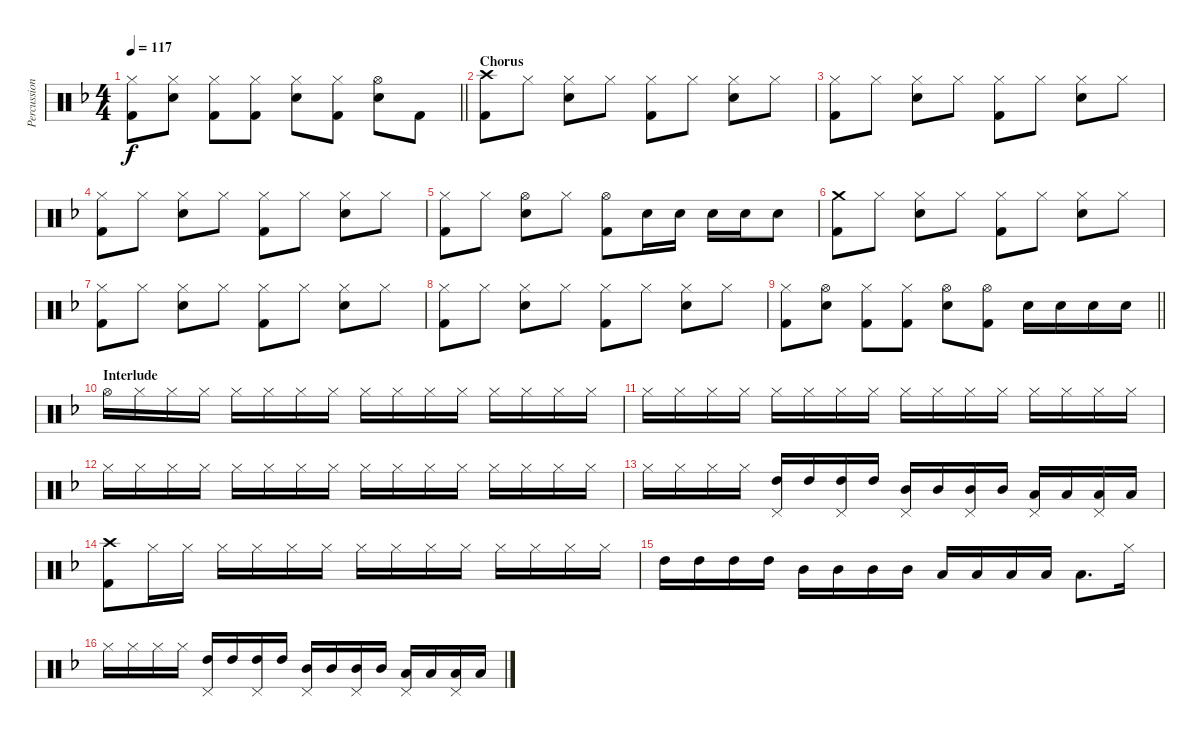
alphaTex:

\track ("Percussion" "Percussion") {instrument percussion}
\staff {score}
\articulation defaults
\ts (4 4)
\tempo 117
\clef neutral
\barLineRight lightlight
\ks f
("Hi-Hat (closed)" "Kick (hit) 2").8{dy f} ("Hi-Hat (closed)" "Electric Snare (hit)").8 ("Hi-Hat (closed)" "Kick (hit) 2").8 ("Hi-Hat (closed)" "Kick (hit) 2").8 ("Hi-Hat (closed)" "Electric Snare (hit)").8 ("Hi-Hat (closed)" "Kick (hit) 2").8 ("Hi-Hat (open)" "Electric Snare (hit)").8 "Kick (hit) 2".8 |
\section ("" "Chorus")
("Crash high (hit)" "Kick (hit) 2").8 "Hi-Hat (closed)".8 ("Hi-Hat (closed)" "Electric Snare (hit)").8 "Hi-Hat (closed)".8 ("Hi-Hat (closed)" "Kick (hit) 2").8 "Hi-Hat (closed)".8 ("Hi-Hat (closed)" "Electric Snare (hit)").8 "Hi-Hat (closed)".8 |
("Hi-Hat (closed)" "Kick (hit) 2").8 "Hi-Hat (closed)".8 ("Hi-Hat (closed)" "Electric Snare (hit)").8 "Hi-Hat (closed)".8 ("Hi-Hat (closed)" "Kick (hit) 2").8 "Hi-Hat (closed)".8 ("Hi-Hat (closed)" "Electric Snare (hit)").8 "Hi-Hat (closed)".8 |
("Hi-Hat (closed)" "Kick (hit) 2").8 "Hi-Hat (closed)".8 ("Hi-Hat (closed)" "Electric Snare (hit)").8 "Hi-Hat (closed)".8 ("Hi-Hat (closed)" "Kick (hit) 2").8 "Hi-Hat (closed)".8 ("Hi-Hat (closed)" "Electric Snare (hit)").8 "Hi-Hat (closed)".8 |
("Hi-Hat (closed)" "Kick (hit) 2").8 "Hi-Hat (closed)".8 ("Hi-Hat (open)" "Electric Snare (hit)").8 "Hi-Hat (closed)".8 ("Hi-Hat (open)" "Kick (hit) 2").8 "Electric Snare (hit)".16 "Electric Snare (hit)".16 "Electric Snare (hit)".16 "Electric Snare (hit)".16 "Electric Snare (hit)".8 |
("Crash medium (hit)" "Kick (hit) 2").8 "Hi-Hat (closed)".8 ("Hi-Hat (closed)" "Electric Snare (hit)").8 "Hi-Hat (closed)".8 ("Hi-Hat (closed)" "Kick (hit) 2").8 "Hi-Hat (closed)".8 ("Hi-Hat (closed)" "Electric Snare (hit)").8 "Hi-Hat (closed)".8 |
("Hi-Hat (closed)" "Kick (hit) 2").8 "Hi-Hat (closed)".8 ("Hi-Hat (closed)" "Electric Snare (hit)").8 "Hi-Hat (closed)".8 ("Hi-Hat (closed)" "Kick (hit) 2").8 "Hi-Hat (closed)".8 ("Hi-Hat (closed)" "Electric Snare (hit)").8 "Hi-Hat (closed)".8 |
("Hi-Hat (closed)" "Kick (hit) 2").8 "Hi-Hat (closed)".8 ("Hi-Hat (closed)" "Electric Snare (hit)").8 "Hi-Hat (closed)".8 ("Hi-Hat (closed)" "Kick (hit) 2").8 "Hi-Hat (closed)".8 ("Hi-Hat (closed)" "Electric Snare (hit)").8 "Hi-Hat (closed)".8 |
\barLineRight lightlight
("Hi-Hat (closed)" "Kick (hit) 2").8 ("Hi-Hat (open)" "Electric Snare (hit)").8 ("Hi-Hat (closed)" "Kick (hit) 2").8 ("Hi-Hat (closed)" "Kick (hit) 2").8 ("Hi-Hat (open)" "Electric Snare (hit)").8 ("Hi-Hat (open)" "Kick (hit) 2").8 "Electric Snare (hit)".16 "Electric Snare (hit)".16 "Electric Snare (hit)".16 "Electric Snare (hit)".16 |
\section ("" "Interlude")
"Hi-Hat (open)".16 "Hi-Hat (closed)".16 "Hi-Hat (closed)".16 "Hi-Hat (closed)".16 "Hi-Hat (closed)".16 "Hi-Hat (closed)".16 "Hi-Hat (closed)".16 "Hi-Hat (closed)".16 "Hi-Hat (closed)".16 "Hi-Hat (closed)".16 "Hi-Hat (closed)".16 "Hi-Hat (closed)".16 "Hi-Hat (closed)".16 "Hi-Hat (closed)".16 "Hi-Hat (closed)".16 "Hi-Hat (closed)".16 |
"Hi-Hat (closed)".16 "Hi-Hat (closed)".16 "Hi-Hat (closed)".16 "Hi-Hat (closed)".16 "Hi-Hat (closed)".16 "Hi-Hat (closed)".16 "Hi-Hat (closed)".16 "Hi-Hat (closed)".16 "Hi-Hat (closed)".16 "Hi-Hat (closed)".16 "Hi-Hat (closed)".16 "Hi-Hat (closed)".16 "Hi-Hat (closed)".16 "Hi-Hat (closed)".16 "Hi-Hat (closed)".16 "Hi-Hat (closed)".16 |
"Hi-Hat (closed)".16 "Hi-Hat (closed)".16 "Hi-Hat (closed)".16 "Hi-Hat (closed)".16 "Hi-Hat (closed)".16 "Hi-Hat (closed)".16 "Hi-Hat (closed)".16 "Hi-Hat (closed)".16 "Hi-Hat (closed)".16 "Hi-Hat (closed)".16 "Hi-Hat (closed)".16 "Hi-Hat (closed)".16 "Hi-Hat (closed)".16 "Hi-Hat (closed)".16 "Hi-Hat (closed)".16 "Hi-Hat (closed)".16 |
"Hi-Hat (closed)".16 "Hi-Hat (closed)".16 "Hi-Hat (closed)".16 "Hi-Hat (closed)".16 ("High Tom (hit)" "Pedal Hi-Hat (hit)").16 "High Tom (hit)".16 ("High Tom (hit)" "Pedal Hi-Hat (hit)").16 "High Tom (hit)".16 ("Mid Tom (hit)" "Pedal Hi-Hat (hit)").16 "Mid Tom (hit)".16 ("Mid Tom (hit)" "Pedal Hi-Hat (hit)").16 "Mid Tom (hit)".16 ("Low Tom (hit)" "Pedal Hi-Hat (hit)").16 "Low Tom (hit)".16 ("Low Tom (hit)" "Pedal Hi-Hat (hit)").16 "Low Tom (hit)".16 |
("Crash high (hit)" "Kick (hit) 2").8 "Hi-Hat (closed)".16 "Hi-Hat (closed)".16 "Hi-Hat (closed)".16 "Hi-Hat (closed)".16 "Hi-Hat (closed)".16 "Hi-Hat (closed)".16 "Hi-Hat (closed)".16 "Hi-Hat (closed)".16 "Hi-Hat (closed)".16 "Hi-Hat (closed)".16 "Hi-Hat (closed)".16 "Hi-Hat (closed)".16 "Hi-Hat (closed)".16 "Hi-Hat (closed)".16 |
"High Tom (hit)".16 "High Tom (hit)".16 "High Tom (hit)".16 "High Tom (hit)".16 "Mid Tom (hit)".16 "Mid Tom (hit)".16 "Mid Tom (hit)".16 "Mid Tom (hit)".16 "Low Tom (hit)".16 "Low Tom (hit)".16 "Low Tom (hit)".16 "Low Tom (hit)".16 "Low Tom (hit)".8{d} "Hi-Hat (closed)".16 |
"Hi-Hat (closed)".16 "Hi-Hat (closed)".16 "Hi-Hat (closed)".16 "Hi-Hat (closed)".16 ("High Tom (hit)" "Pedal Hi-Hat (hit)").16 "High Tom (hit)".16 ("High Tom (hit)" "Pedal Hi-Hat (hit)").16 "High Tom (hit)".16 ("Mid Tom (hit)" "Pedal Hi-Hat (hit)").16 "Mid Tom (hit)".16 ("Mid Tom (hit)" "Pedal Hi-Hat (hit)").16 "Mid Tom (hit)".16 ("Low Tom (hit)" "Pedal Hi-Hat (hit)").16 "Low Tom (hit)".16 ("Low Tom (hit)" "Pedal Hi-Hat (hit)").16 "Low Tom (hit)".16
